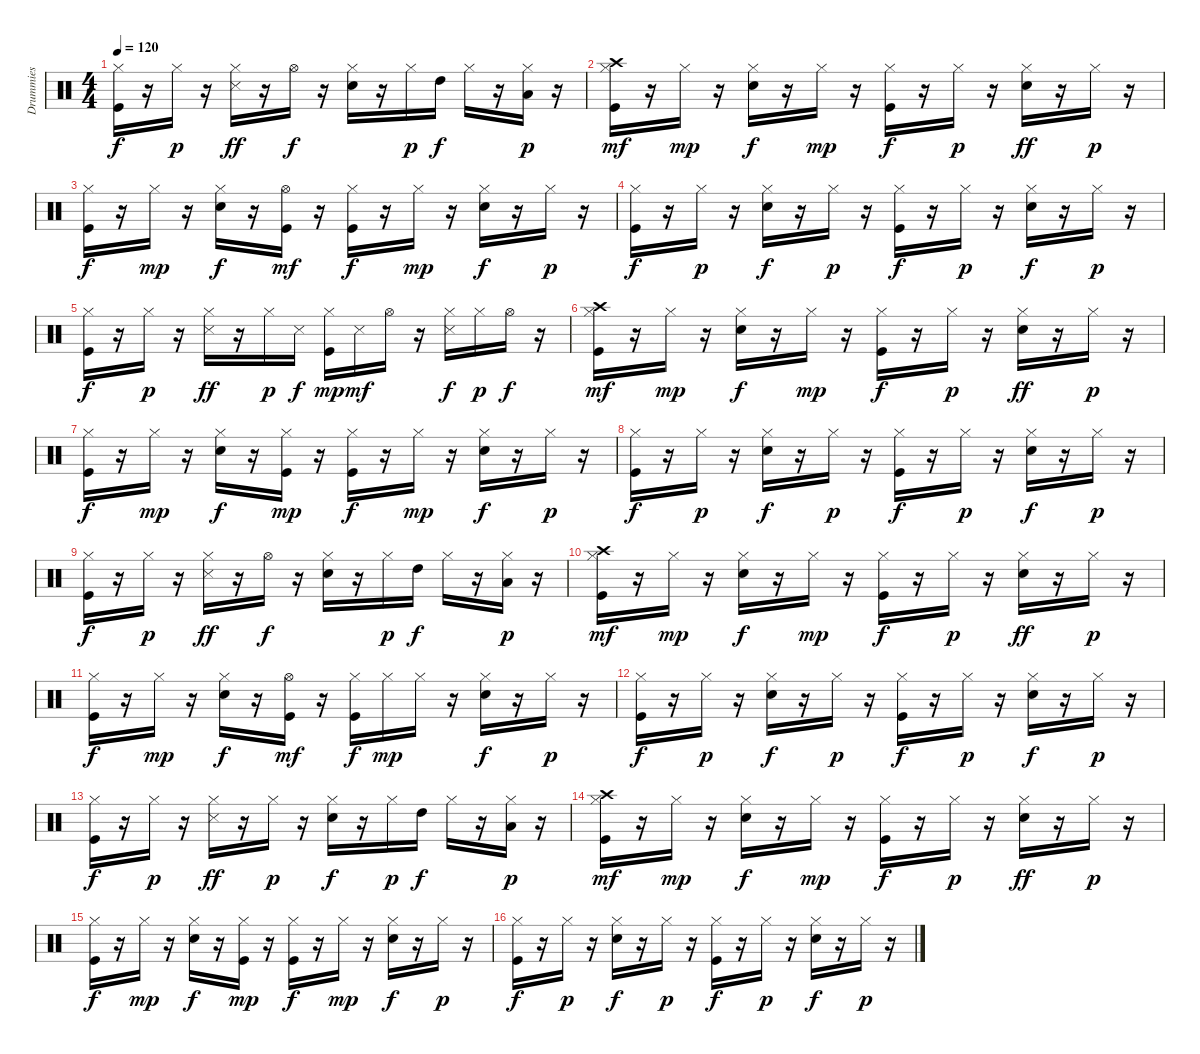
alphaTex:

\track ("Drummies" "Drummies") {instrument percussion}
\staff {score}
\articulation defaults
\ts (4 4)
\tempo 120
\clef neutral
\ks c
("Kick (hit)" "Hi-Hat (closed)").16{dy f} r.16 "Hi-Hat (closed)".16{dy p} r.16 ("Hi-Hat (closed)" "Snare (side stick) 3").16{dy ff} r.16 "Hi-Hat (open)".16{dy f} r.16 ("Snare (hit) 2" "Hi-Hat (closed)").16 r.16 "Hi-Hat (closed)".16{dy p} "High Tom (hit)".16{dy f} "Hi-Hat (closed)".16 r.16 ("Hi-Hat (closed)" "Low Tom (hit)").16{dy p} r.16 |
("Kick (hit)" "Hi-Hat (closed)" "Crash high (hit)").16{dy mf} r.16 "Hi-Hat (closed)".16{dy mp} r.16 ("Snare (hit) 2" "Hi-Hat (closed)").16{dy f} r.16 "Hi-Hat (closed)".16{dy mp} r.16 ("Kick (hit)" "Hi-Hat (closed)").16{dy f} r.16 "Hi-Hat (closed)".16{dy p} r.16 ("Snare (hit) 2" "Hi-Hat (closed)").16{dy ff} r.16 "Hi-Hat (closed)".16{dy p} r.16 |
("Kick (hit)" "Hi-Hat (closed)").16{dy f} r.16 "Hi-Hat (closed)".16{dy mp} r.16 ("Snare (hit) 2" "Hi-Hat (closed)").16{dy f} r.16 ("Kick (hit)" "Hi-Hat (open)").16{dy mf} r.16 ("Kick (hit)" "Hi-Hat (closed)").16{dy f} r.16 "Hi-Hat (closed)".16{dy mp} r.16 ("Snare (hit) 2" "Hi-Hat (closed)").16{dy f} r.16 "Hi-Hat (closed)".16{dy p} r.16 |
("Kick (hit)" "Hi-Hat (closed)").16{dy f} r.16 "Hi-Hat (closed)".16{dy p} r.16 ("Snare (hit) 2" "Hi-Hat (closed)").16{dy f} r.16 "Hi-Hat (closed)".16{dy p} r.16 ("Kick (hit)" "Hi-Hat (closed)").16{dy f} r.16 "Hi-Hat (closed)".16{dy p} r.16 ("Snare (hit) 2" "Hi-Hat (closed)").16{dy f} r.16 "Hi-Hat (closed)".16{dy p} r.16 |
("Kick (hit)" "Hi-Hat (closed)").16{dy f} r.16 "Hi-Hat (closed)".16{dy p} r.16 ("Hi-Hat (closed)" "Snare (side stick) 3").16{dy ff} r.16 "Hi-Hat (closed)".16{dy p} "Snare (side stick) 3".16{dy f} ("Kick (hit)" "Hi-Hat (closed)").16{dy mp} "Snare (side stick) 3".16{dy mf} "Hi-Hat (open)".16 r.16 ("Hi-Hat (closed)" "Snare (side stick) 3").16{dy f} "Hi-Hat (closed)".16{dy p} "Hi-Hat (open)".16{dy f} r.16 |
("Kick (hit)" "Hi-Hat (closed)" "Crash high (hit)").16{dy mf} r.16 "Hi-Hat (closed)".16{dy mp} r.16 ("Snare (hit) 2" "Hi-Hat (closed)").16{dy f} r.16 "Hi-Hat (closed)".16{dy mp} r.16 ("Kick (hit)" "Hi-Hat (closed)").16{dy f} r.16 "Hi-Hat (closed)".16{dy p} r.16 ("Snare (hit) 2" "Hi-Hat (closed)").16{dy ff} r.16 "Hi-Hat (closed)".16{dy p} r.16 |
("Kick (hit)" "Hi-Hat (closed)").16{dy f} r.16 "Hi-Hat (closed)".16{dy mp} r.16 ("Snare (hit) 2" "Hi-Hat (closed)").16{dy f} r.16 ("Kick (hit)" "Hi-Hat (closed)").16{dy mp} r.16 ("Kick (hit)" "Hi-Hat (closed)").16{dy f} r.16 "Hi-Hat (closed)".16{dy mp} r.16 ("Snare (hit) 2" "Hi-Hat (closed)").16{dy f} r.16 "Hi-Hat (closed)".16{dy p} r.16 |
("Kick (hit)" "Hi-Hat (closed)").16{dy f} r.16 "Hi-Hat (closed)".16{dy p} r.16 ("Snare (hit) 2" "Hi-Hat (closed)").16{dy f} r.16 "Hi-Hat (closed)".16{dy p} r.16 ("Kick (hit)" "Hi-Hat (closed)").16{dy f} r.16 "Hi-Hat (closed)".16{dy p} r.16 ("Snare (hit) 2" "Hi-Hat (closed)").16{dy f} r.16 "Hi-Hat (closed)".16{dy p} r.16 |
("Kick (hit)" "Hi-Hat (closed)").16{dy f} r.16 "Hi-Hat (closed)".16{dy p} r.16 ("Hi-Hat (closed)" "Snare (side stick) 3").16{dy ff} r.16 "Hi-Hat (open)".16{dy f} r.16 ("Snare (hit) 2" "Hi-Hat (closed)").16 r.16 "Hi-Hat (closed)".16{dy p} "High Tom (hit)".16{dy f} "Hi-Hat (closed)".16 r.16 ("Hi-Hat (closed)" "Low Tom (hit)").16{dy p} r.16 |
("Kick (hit)" "Hi-Hat (closed)" "Crash high (hit)").16{dy mf} r.16 "Hi-Hat (closed)".16{dy mp} r.16 ("Snare (hit) 2" "Hi-Hat (closed)").16{dy f} r.16 "Hi-Hat (closed)".16{dy mp} r.16 ("Kick (hit)" "Hi-Hat (closed)").16{dy f} r.16 "Hi-Hat (closed)".16{dy p} r.16 ("Snare (hit) 2" "Hi-Hat (closed)").16{dy ff} r.16 "Hi-Hat (closed)".16{dy p} r.16 |
("Kick (hit)" "Hi-Hat (closed)").16{dy f} r.16 "Hi-Hat (closed)".16{dy mp} r.16 ("Snare (hit) 2" "Hi-Hat (closed)").16{dy f} r.16 ("Kick (hit)" "Hi-Hat (open)").16{dy mf} r.16 ("Kick (hit)" "Hi-Hat (closed)").16{dy f} "Hi-Hat (closed)".16{dy mp} "Hi-Hat (closed)".16 r.16 ("Snare (hit) 2" "Hi-Hat (closed)").16{dy f} r.16 "Hi-Hat (closed)".16{dy p} r.16 |
("Kick (hit)" "Hi-Hat (closed)").16{dy f} r.16 "Hi-Hat (closed)".16{dy p} r.16 ("Snare (hit) 2" "Hi-Hat (closed)").16{dy f} r.16 "Hi-Hat (closed)".16{dy p} r.16 ("Kick (hit)" "Hi-Hat (closed)").16{dy f} r.16 "Hi-Hat (closed)".16{dy p} r.16 ("Snare (hit) 2" "Hi-Hat (closed)").16{dy f} r.16 "Hi-Hat (closed)".16{dy p} r.16 |
("Kick (hit)" "Hi-Hat (closed)").16{dy f} r.16 "Hi-Hat (closed)".16{dy p} r.16 ("Hi-Hat (closed)" "Snare (side stick) 3").16{dy ff} r.16 "Hi-Hat (closed)".16{dy p} r.16 ("Snare (hit) 2" "Hi-Hat (closed)").16{dy f} r.16 "Hi-Hat (closed)".16{dy p} "High Tom (hit)".16{dy f} "Hi-Hat (closed)".16 r.16 ("Hi-Hat (closed)" "Low Tom (hit)").16{dy p} r.16 |
("Kick (hit)" "Hi-Hat (closed)" "Crash high (hit)").16{dy mf} r.16 "Hi-Hat (closed)".16{dy mp} r.16 ("Snare (hit) 2" "Hi-Hat (closed)").16{dy f} r.16 "Hi-Hat (closed)".16{dy mp} r.16 ("Kick (hit)" "Hi-Hat (closed)").16{dy f} r.16 "Hi-Hat (closed)".16{dy p} r.16 ("Snare (hit) 2" "Hi-Hat (closed)").16{dy ff} r.16 "Hi-Hat (closed)".16{dy p} r.16 |
("Kick (hit)" "Hi-Hat (closed)").16{dy f} r.16 "Hi-Hat (closed)".16{dy mp} r.16 ("Snare (hit) 2" "Hi-Hat (closed)").16{dy f} r.16 ("Kick (hit)" "Hi-Hat (closed)").16{dy mp} r.16 ("Kick (hit)" "Hi-Hat (closed)").16{dy f} r.16 "Hi-Hat (closed)".16{dy mp} r.16 ("Snare (hit) 2" "Hi-Hat (closed)").16{dy f} r.16 "Hi-Hat (closed)".16{dy p} r.16 |
("Kick (hit)" "Hi-Hat (closed)").16{dy f} r.16 "Hi-Hat (closed)".16{dy p} r.16 ("Snare (hit) 2" "Hi-Hat (closed)").16{dy f} r.16 "Hi-Hat (closed)".16{dy p} r.16 ("Kick (hit)" "Hi-Hat (closed)").16{dy f} r.16 "Hi-Hat (closed)".16{dy p} r.16 ("Snare (hit) 2" "Hi-Hat (closed)").16{dy f} r.16 "Hi-Hat (closed)".16{dy p} r.16
